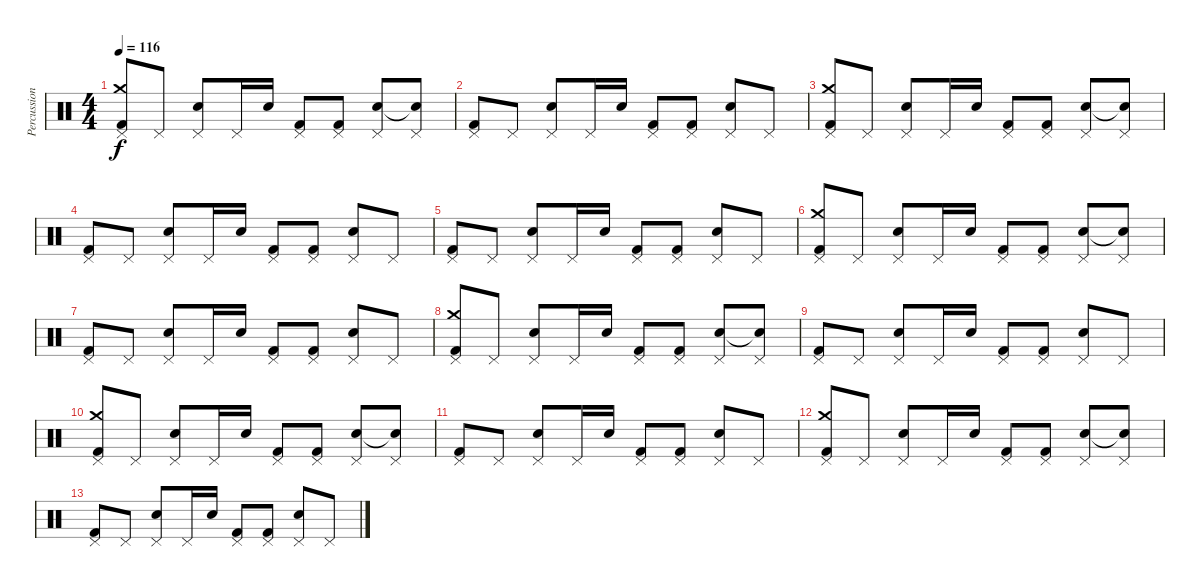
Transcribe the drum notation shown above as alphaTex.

\track ("Percussions" "Percussion") {instrument percussion}
\staff {score}
\articulation defaults
\ts (4 4)
\tempo 116
\clef neutral
\ks c
("Pedal Hi-Hat (hit)" "Crash medium (hit)" "Kick (hit) 2").8{dy f} "Pedal Hi-Hat (hit)".8 ("Pedal Hi-Hat (hit)" "Electric Snare (hit)").8 "Pedal Hi-Hat (hit)".16 "Electric Snare (hit)".16 ("Pedal Hi-Hat (hit)" "Kick (hit) 2").8 ("Pedal Hi-Hat (hit)" "Kick (hit) 2").8 ("Pedal Hi-Hat (hit)" "Electric Snare (hit)").8 ("Pedal Hi-Hat (hit)" "Snare (hit)"{t}).8 |
("Pedal Hi-Hat (hit)" "Kick (hit) 2").8 "Pedal Hi-Hat (hit)".8 ("Pedal Hi-Hat (hit)" "Electric Snare (hit)").8 "Pedal Hi-Hat (hit)".16 "Electric Snare (hit)".16 ("Pedal Hi-Hat (hit)" "Kick (hit) 2").8 ("Pedal Hi-Hat (hit)" "Kick (hit) 2").8 ("Pedal Hi-Hat (hit)" "Electric Snare (hit)").8 "Pedal Hi-Hat (hit)".8 |
("Pedal Hi-Hat (hit)" "Crash medium (hit)" "Kick (hit) 2").8 "Pedal Hi-Hat (hit)".8 ("Pedal Hi-Hat (hit)" "Electric Snare (hit)").8 "Pedal Hi-Hat (hit)".16 "Electric Snare (hit)".16 ("Pedal Hi-Hat (hit)" "Kick (hit) 2").8 ("Pedal Hi-Hat (hit)" "Kick (hit) 2").8 ("Pedal Hi-Hat (hit)" "Electric Snare (hit)").8 ("Pedal Hi-Hat (hit)" "Snare (hit)"{t}).8 |
("Pedal Hi-Hat (hit)" "Kick (hit) 2").8 "Pedal Hi-Hat (hit)".8 ("Pedal Hi-Hat (hit)" "Electric Snare (hit)").8 "Pedal Hi-Hat (hit)".16 "Electric Snare (hit)".16 ("Pedal Hi-Hat (hit)" "Kick (hit) 2").8 ("Pedal Hi-Hat (hit)" "Kick (hit) 2").8 ("Pedal Hi-Hat (hit)" "Electric Snare (hit)").8 "Pedal Hi-Hat (hit)".8 |
("Pedal Hi-Hat (hit)" "Kick (hit) 2").8 "Pedal Hi-Hat (hit)".8 ("Pedal Hi-Hat (hit)" "Electric Snare (hit)").8 "Pedal Hi-Hat (hit)".16 "Electric Snare (hit)".16 ("Pedal Hi-Hat (hit)" "Kick (hit) 2").8 ("Pedal Hi-Hat (hit)" "Kick (hit) 2").8 ("Pedal Hi-Hat (hit)" "Electric Snare (hit)").8 "Pedal Hi-Hat (hit)".8 |
("Pedal Hi-Hat (hit)" "Crash medium (hit)" "Kick (hit) 2").8 "Pedal Hi-Hat (hit)".8 ("Pedal Hi-Hat (hit)" "Electric Snare (hit)").8 "Pedal Hi-Hat (hit)".16 "Electric Snare (hit)".16 ("Pedal Hi-Hat (hit)" "Kick (hit) 2").8 ("Pedal Hi-Hat (hit)" "Kick (hit) 2").8 ("Pedal Hi-Hat (hit)" "Electric Snare (hit)").8 ("Pedal Hi-Hat (hit)" "Snare (hit)"{t}).8 |
("Pedal Hi-Hat (hit)" "Kick (hit) 2").8 "Pedal Hi-Hat (hit)".8 ("Pedal Hi-Hat (hit)" "Electric Snare (hit)").8 "Pedal Hi-Hat (hit)".16 "Electric Snare (hit)".16 ("Pedal Hi-Hat (hit)" "Kick (hit) 2").8 ("Pedal Hi-Hat (hit)" "Kick (hit) 2").8 ("Pedal Hi-Hat (hit)" "Electric Snare (hit)").8 "Pedal Hi-Hat (hit)".8 |
("Pedal Hi-Hat (hit)" "Crash medium (hit)" "Kick (hit) 2").8 "Pedal Hi-Hat (hit)".8 ("Pedal Hi-Hat (hit)" "Electric Snare (hit)").8 "Pedal Hi-Hat (hit)".16 "Electric Snare (hit)".16 ("Pedal Hi-Hat (hit)" "Kick (hit) 2").8 ("Pedal Hi-Hat (hit)" "Kick (hit) 2").8 ("Pedal Hi-Hat (hit)" "Electric Snare (hit)").8 ("Pedal Hi-Hat (hit)" "Snare (hit)"{t}).8 |
("Pedal Hi-Hat (hit)" "Kick (hit) 2").8 "Pedal Hi-Hat (hit)".8 ("Pedal Hi-Hat (hit)" "Electric Snare (hit)").8 "Pedal Hi-Hat (hit)".16 "Electric Snare (hit)".16 ("Pedal Hi-Hat (hit)" "Kick (hit) 2").8 ("Pedal Hi-Hat (hit)" "Kick (hit) 2").8 ("Pedal Hi-Hat (hit)" "Electric Snare (hit)").8 "Pedal Hi-Hat (hit)".8 |
("Pedal Hi-Hat (hit)" "Crash medium (hit)" "Kick (hit) 2").8 "Pedal Hi-Hat (hit)".8 ("Pedal Hi-Hat (hit)" "Electric Snare (hit)").8 "Pedal Hi-Hat (hit)".16 "Electric Snare (hit)".16 ("Pedal Hi-Hat (hit)" "Kick (hit) 2").8 ("Pedal Hi-Hat (hit)" "Kick (hit) 2").8 ("Pedal Hi-Hat (hit)" "Electric Snare (hit)").8 ("Pedal Hi-Hat (hit)" "Snare (hit)"{t}).8 |
("Pedal Hi-Hat (hit)" "Kick (hit) 2").8 "Pedal Hi-Hat (hit)".8 ("Pedal Hi-Hat (hit)" "Electric Snare (hit)").8 "Pedal Hi-Hat (hit)".16 "Electric Snare (hit)".16 ("Pedal Hi-Hat (hit)" "Kick (hit) 2").8 ("Pedal Hi-Hat (hit)" "Kick (hit) 2").8 ("Pedal Hi-Hat (hit)" "Electric Snare (hit)").8 "Pedal Hi-Hat (hit)".8 |
("Pedal Hi-Hat (hit)" "Crash medium (hit)" "Kick (hit) 2").8 "Pedal Hi-Hat (hit)".8 ("Pedal Hi-Hat (hit)" "Electric Snare (hit)").8 "Pedal Hi-Hat (hit)".16 "Electric Snare (hit)".16 ("Pedal Hi-Hat (hit)" "Kick (hit) 2").8 ("Pedal Hi-Hat (hit)" "Kick (hit) 2").8 ("Pedal Hi-Hat (hit)" "Electric Snare (hit)").8 ("Pedal Hi-Hat (hit)" "Snare (hit)"{t}).8 |
("Pedal Hi-Hat (hit)" "Kick (hit) 2").8 "Pedal Hi-Hat (hit)".8 ("Pedal Hi-Hat (hit)" "Electric Snare (hit)").8 "Pedal Hi-Hat (hit)".16 "Electric Snare (hit)".16 ("Pedal Hi-Hat (hit)" "Kick (hit) 2").8 ("Pedal Hi-Hat (hit)" "Kick (hit) 2").8 ("Pedal Hi-Hat (hit)" "Electric Snare (hit)").8 "Pedal Hi-Hat (hit)".8
